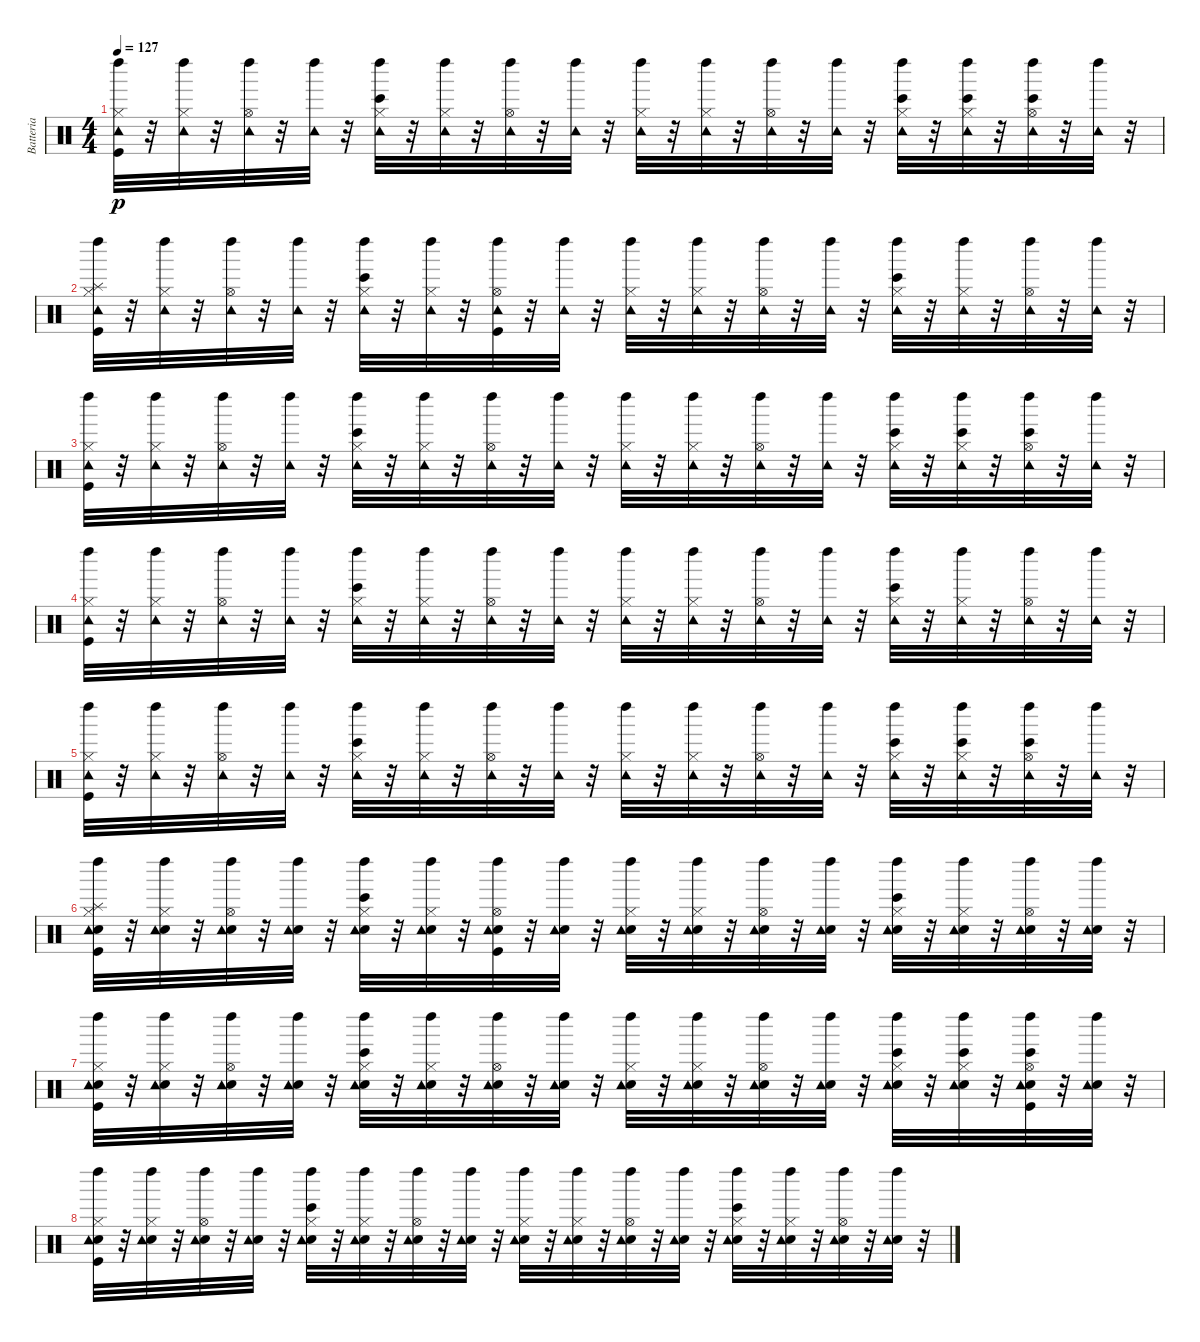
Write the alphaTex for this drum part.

\track ("Batteria" "Batteria") {instrument percussion}
\staff {score}
\articulation defaults
\ts (4 4)
\tempo 127
\clef neutral
\ks c
("Kick (hit)" "Hi-Hat (closed)" "Tambourine (hit)" "Left Maraca (hit)").32{dy p} r.32 ("Hi-Hat (closed)" "Tambourine (hit)" "Left Maraca (hit)").32 r.32 ("Hi-Hat (open)" "Tambourine (hit)" "Left Maraca (hit)").32 r.32 ("Tambourine (hit)" "Left Maraca (hit)").32 r.32 ("Bongo High (hit)" "Hi-Hat (closed)" "Tambourine (hit)" "Left Maraca (hit)").32 r.32 ("Hi-Hat (closed)" "Tambourine (hit)" "Left Maraca (hit)").32 r.32 ("Hi-Hat (open)" "Tambourine (hit)" "Left Maraca (hit)").32 r.32 ("Tambourine (hit)" "Left Maraca (hit)").32 r.32 ("Hi-Hat (closed)" "Tambourine (hit)" "Left Maraca (hit)").32 r.32 ("Hi-Hat (closed)" "Tambourine (hit)" "Left Maraca (hit)").32 r.32 ("Hi-Hat (open)" "Tambourine (hit)" "Left Maraca (hit)").32 r.32 ("Tambourine (hit)" "Left Maraca (hit)").32 r.32 ("Bongo High (hit)" "Hi-Hat (closed)" "Tambourine (hit)" "Left Maraca (hit)").32 r.32 ("Bongo High (hit)" "Hi-Hat (closed)" "Tambourine (hit)" "Left Maraca (hit)").32 r.32 ("Bongo High (hit)" "Hi-Hat (open)" "Tambourine (hit)" "Left Maraca (hit)").32 r.32 ("Tambourine (hit)" "Left Maraca (hit)").32 r.32 |
("Kick (hit)" "Hi-Hat (closed)" "Tambourine (hit)" "Splash (hit)" "Left Maraca (hit)").32 r.32 ("Hi-Hat (closed)" "Tambourine (hit)" "Left Maraca (hit)").32 r.32 ("Hi-Hat (open)" "Tambourine (hit)" "Left Maraca (hit)").32 r.32 ("Tambourine (hit)" "Left Maraca (hit)").32 r.32 ("Bongo High (hit)" "Hi-Hat (closed)" "Tambourine (hit)" "Left Maraca (hit)").32 r.32 ("Hi-Hat (closed)" "Tambourine (hit)" "Left Maraca (hit)").32 r.32 ("Kick (hit)" "Hi-Hat (open)" "Tambourine (hit)" "Left Maraca (hit)").32 r.32 ("Tambourine (hit)" "Left Maraca (hit)").32 r.32 ("Hi-Hat (closed)" "Tambourine (hit)" "Left Maraca (hit)").32 r.32 ("Hi-Hat (closed)" "Tambourine (hit)" "Left Maraca (hit)").32 r.32 ("Hi-Hat (open)" "Tambourine (hit)" "Left Maraca (hit)").32 r.32 ("Tambourine (hit)" "Left Maraca (hit)").32 r.32 ("Bongo High (hit)" "Hi-Hat (closed)" "Tambourine (hit)" "Left Maraca (hit)").32 r.32 ("Hi-Hat (closed)" "Tambourine (hit)" "Left Maraca (hit)").32 r.32 ("Hi-Hat (open)" "Tambourine (hit)" "Left Maraca (hit)").32 r.32 ("Tambourine (hit)" "Left Maraca (hit)").32 r.32 |
("Kick (hit)" "Hi-Hat (closed)" "Tambourine (hit)" "Left Maraca (hit)").32 r.32 ("Hi-Hat (closed)" "Tambourine (hit)" "Left Maraca (hit)").32 r.32 ("Hi-Hat (open)" "Tambourine (hit)" "Left Maraca (hit)").32 r.32 ("Tambourine (hit)" "Left Maraca (hit)").32 r.32 ("Bongo High (hit)" "Hi-Hat (closed)" "Tambourine (hit)" "Left Maraca (hit)").32 r.32 ("Hi-Hat (closed)" "Tambourine (hit)" "Left Maraca (hit)").32 r.32 ("Hi-Hat (open)" "Tambourine (hit)" "Left Maraca (hit)").32 r.32 ("Tambourine (hit)" "Left Maraca (hit)").32 r.32 ("Hi-Hat (closed)" "Tambourine (hit)" "Left Maraca (hit)").32 r.32 ("Hi-Hat (closed)" "Tambourine (hit)" "Left Maraca (hit)").32 r.32 ("Hi-Hat (open)" "Tambourine (hit)" "Left Maraca (hit)").32 r.32 ("Tambourine (hit)" "Left Maraca (hit)").32 r.32 ("Bongo High (hit)" "Hi-Hat (closed)" "Tambourine (hit)" "Left Maraca (hit)").32 r.32 ("Bongo High (hit)" "Hi-Hat (closed)" "Tambourine (hit)" "Left Maraca (hit)").32 r.32 ("Bongo High (hit)" "Hi-Hat (open)" "Tambourine (hit)" "Left Maraca (hit)").32 r.32 ("Tambourine (hit)" "Left Maraca (hit)").32 r.32 |
("Kick (hit)" "Hi-Hat (closed)" "Tambourine (hit)" "Left Maraca (hit)").32 r.32 ("Hi-Hat (closed)" "Tambourine (hit)" "Left Maraca (hit)").32 r.32 ("Hi-Hat (open)" "Tambourine (hit)" "Left Maraca (hit)").32 r.32 ("Tambourine (hit)" "Left Maraca (hit)").32 r.32 ("Bongo High (hit)" "Hi-Hat (closed)" "Tambourine (hit)" "Left Maraca (hit)").32 r.32 ("Hi-Hat (closed)" "Tambourine (hit)" "Left Maraca (hit)").32 r.32 ("Hi-Hat (open)" "Tambourine (hit)" "Left Maraca (hit)").32 r.32 ("Tambourine (hit)" "Left Maraca (hit)").32 r.32 ("Hi-Hat (closed)" "Tambourine (hit)" "Left Maraca (hit)").32 r.32 ("Hi-Hat (closed)" "Tambourine (hit)" "Left Maraca (hit)").32 r.32 ("Hi-Hat (open)" "Tambourine (hit)" "Left Maraca (hit)").32 r.32 ("Tambourine (hit)" "Left Maraca (hit)").32 r.32 ("Bongo High (hit)" "Hi-Hat (closed)" "Tambourine (hit)" "Left Maraca (hit)").32 r.32 ("Hi-Hat (closed)" "Tambourine (hit)" "Left Maraca (hit)").32 r.32 ("Hi-Hat (open)" "Tambourine (hit)" "Left Maraca (hit)").32 r.32 ("Tambourine (hit)" "Left Maraca (hit)").32 r.32 |
("Kick (hit)" "Hi-Hat (closed)" "Tambourine (hit)" "Left Maraca (hit)").32 r.32 ("Hi-Hat (closed)" "Tambourine (hit)" "Left Maraca (hit)").32 r.32 ("Hi-Hat (open)" "Tambourine (hit)" "Left Maraca (hit)").32 r.32 ("Tambourine (hit)" "Left Maraca (hit)").32 r.32 ("Bongo High (hit)" "Hi-Hat (closed)" "Tambourine (hit)" "Left Maraca (hit)").32 r.32 ("Hi-Hat (closed)" "Tambourine (hit)" "Left Maraca (hit)").32 r.32 ("Hi-Hat (open)" "Tambourine (hit)" "Left Maraca (hit)").32 r.32 ("Tambourine (hit)" "Left Maraca (hit)").32 r.32 ("Hi-Hat (closed)" "Tambourine (hit)" "Left Maraca (hit)").32 r.32 ("Hi-Hat (closed)" "Tambourine (hit)" "Left Maraca (hit)").32 r.32 ("Hi-Hat (open)" "Tambourine (hit)" "Left Maraca (hit)").32 r.32 ("Tambourine (hit)" "Left Maraca (hit)").32 r.32 ("Bongo High (hit)" "Hi-Hat (closed)" "Tambourine (hit)" "Left Maraca (hit)").32 r.32 ("Bongo High (hit)" "Hi-Hat (closed)" "Tambourine (hit)" "Left Maraca (hit)").32 r.32 ("Bongo High (hit)" "Hi-Hat (open)" "Tambourine (hit)" "Left Maraca (hit)").32 r.32 ("Tambourine (hit)" "Left Maraca (hit)").32 r.32 |
("Kick (hit)" "Electric Snare (hit)" "Hi-Hat (closed)" "Tambourine (hit)" "Splash (hit)" "Left Maraca (hit)").32 r.32 ("Electric Snare (hit)" "Hi-Hat (closed)" "Tambourine (hit)" "Left Maraca (hit)").32 r.32 ("Electric Snare (hit)" "Hi-Hat (open)" "Tambourine (hit)" "Left Maraca (hit)").32 r.32 ("Electric Snare (hit)" "Tambourine (hit)" "Left Maraca (hit)").32 r.32 ("Bongo High (hit)" "Electric Snare (hit)" "Hi-Hat (closed)" "Tambourine (hit)" "Left Maraca (hit)").32 r.32 ("Electric Snare (hit)" "Hi-Hat (closed)" "Tambourine (hit)" "Left Maraca (hit)").32 r.32 ("Kick (hit)" "Electric Snare (hit)" "Hi-Hat (open)" "Tambourine (hit)" "Left Maraca (hit)").32 r.32 ("Electric Snare (hit)" "Tambourine (hit)" "Left Maraca (hit)").32 r.32 ("Electric Snare (hit)" "Hi-Hat (closed)" "Tambourine (hit)" "Left Maraca (hit)").32 r.32 ("Electric Snare (hit)" "Hi-Hat (closed)" "Tambourine (hit)" "Left Maraca (hit)").32 r.32 ("Electric Snare (hit)" "Hi-Hat (open)" "Tambourine (hit)" "Left Maraca (hit)").32 r.32 ("Electric Snare (hit)" "Tambourine (hit)" "Left Maraca (hit)").32 r.32 ("Bongo High (hit)" "Electric Snare (hit)" "Hi-Hat (closed)" "Tambourine (hit)" "Left Maraca (hit)").32 r.32 ("Electric Snare (hit)" "Hi-Hat (closed)" "Tambourine (hit)" "Left Maraca (hit)").32 r.32 ("Electric Snare (hit)" "Hi-Hat (open)" "Tambourine (hit)" "Left Maraca (hit)").32 r.32 ("Electric Snare (hit)" "Tambourine (hit)" "Left Maraca (hit)").32 r.32 |
("Kick (hit)" "Electric Snare (hit)" "Hi-Hat (closed)" "Tambourine (hit)" "Left Maraca (hit)").32 r.32 ("Electric Snare (hit)" "Hi-Hat (closed)" "Tambourine (hit)" "Left Maraca (hit)").32 r.32 ("Electric Snare (hit)" "Hi-Hat (open)" "Tambourine (hit)" "Left Maraca (hit)").32 r.32 ("Electric Snare (hit)" "Tambourine (hit)" "Left Maraca (hit)").32 r.32 ("Bongo High (hit)" "Electric Snare (hit)" "Hi-Hat (closed)" "Tambourine (hit)" "Left Maraca (hit)").32 r.32 ("Electric Snare (hit)" "Hi-Hat (closed)" "Tambourine (hit)" "Left Maraca (hit)").32 r.32 ("Electric Snare (hit)" "Hi-Hat (open)" "Tambourine (hit)" "Left Maraca (hit)").32 r.32 ("Electric Snare (hit)" "Tambourine (hit)" "Left Maraca (hit)").32 r.32 ("Electric Snare (hit)" "Hi-Hat (closed)" "Tambourine (hit)" "Left Maraca (hit)").32 r.32 ("Electric Snare (hit)" "Hi-Hat (closed)" "Tambourine (hit)" "Left Maraca (hit)").32 r.32 ("Electric Snare (hit)" "Hi-Hat (open)" "Tambourine (hit)" "Left Maraca (hit)").32 r.32 ("Electric Snare (hit)" "Tambourine (hit)" "Left Maraca (hit)").32 r.32 ("Bongo High (hit)" "Electric Snare (hit)" "Hi-Hat (closed)" "Tambourine (hit)" "Left Maraca (hit)").32 r.32 ("Bongo High (hit)" "Electric Snare (hit)" "Hi-Hat (closed)" "Tambourine (hit)" "Left Maraca (hit)").32 r.32 ("Bongo High (hit)" "Kick (hit)" "Electric Snare (hit)" "Hi-Hat (open)" "Tambourine (hit)" "Left Maraca (hit)").32 r.32 ("Electric Snare (hit)" "Tambourine (hit)" "Left Maraca (hit)").32 r.32 |
("Kick (hit)" "Electric Snare (hit)" "Hi-Hat (closed)" "Tambourine (hit)" "Left Maraca (hit)").32 r.32 ("Electric Snare (hit)" "Hi-Hat (closed)" "Tambourine (hit)" "Left Maraca (hit)").32 r.32 ("Electric Snare (hit)" "Hi-Hat (open)" "Tambourine (hit)" "Left Maraca (hit)").32 r.32 ("Electric Snare (hit)" "Tambourine (hit)" "Left Maraca (hit)").32 r.32 ("Bongo High (hit)" "Electric Snare (hit)" "Hi-Hat (closed)" "Tambourine (hit)" "Left Maraca (hit)").32 r.32 ("Electric Snare (hit)" "Hi-Hat (closed)" "Tambourine (hit)" "Left Maraca (hit)").32 r.32 ("Electric Snare (hit)" "Hi-Hat (open)" "Tambourine (hit)" "Left Maraca (hit)").32 r.32 ("Electric Snare (hit)" "Tambourine (hit)" "Left Maraca (hit)").32 r.32 ("Electric Snare (hit)" "Hi-Hat (closed)" "Tambourine (hit)" "Left Maraca (hit)").32 r.32 ("Electric Snare (hit)" "Hi-Hat (closed)" "Tambourine (hit)" "Left Maraca (hit)").32 r.32 ("Electric Snare (hit)" "Hi-Hat (open)" "Tambourine (hit)" "Left Maraca (hit)").32 r.32 ("Electric Snare (hit)" "Tambourine (hit)" "Left Maraca (hit)").32 r.32 ("Bongo High (hit)" "Electric Snare (hit)" "Hi-Hat (closed)" "Tambourine (hit)" "Left Maraca (hit)").32 r.32 ("Electric Snare (hit)" "Hi-Hat (closed)" "Tambourine (hit)" "Left Maraca (hit)").32 r.32 ("Electric Snare (hit)" "Hi-Hat (open)" "Tambourine (hit)" "Left Maraca (hit)").32 r.32 ("Electric Snare (hit)" "Tambourine (hit)" "Left Maraca (hit)").32 r.32
